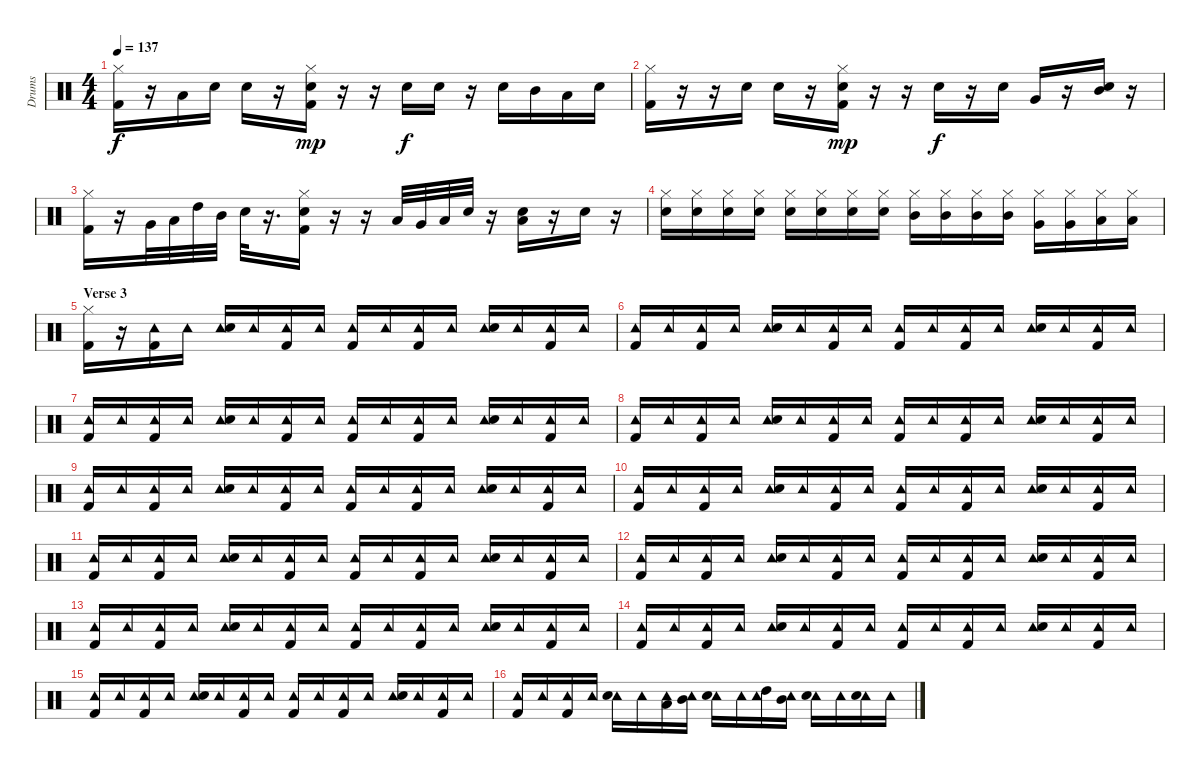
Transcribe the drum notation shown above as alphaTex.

\track ("Drums" "Drums") {instrument percussion}
\staff {score}
\articulation defaults
\ts (4 4)
\tempo 137
\clef neutral
\ks c
("Hi-Hat (closed)" "Kick (hit) 2").16{dy f} r.16 "Low Tom (hit)".16 "Electric Snare (hit)".16 "Snare (hit) 2".16 r.16 ("Hi-Hat (closed)" "Snare (hit) 2" "Kick (hit) 2").16{dy mp} r.16 r.16 "Electric Snare (hit)".16{dy f} "Snare (hit) 2".16 r.16 "Electric Snare (hit)".16 "Mid Tom (hit)".16 "Low Tom (hit)".16 "Snare (hit) 2".16 |
("Hi-Hat (closed)" "Kick (hit) 2").16 r.16 r.16 "Electric Snare (hit)".16 "Snare (hit) 2".16 r.16 ("Hi-Hat (closed)" "Snare (hit) 2" "Kick (hit) 2").16{dy mp} r.16 r.16 "Snare (hit) 2".16{dy f} r.16 "Electric Snare (hit)".16 "Very Low Tom (hit)".16 r.16 ("Mid Tom (hit)" "Electric Snare (hit)").16 r.16 |
("Hi-Hat (closed)" "Kick (hit) 2").16 r.16 "Very Low Tom (hit)".32 "Low Tom (hit)".32 "High Tom (hit)".32 "Mid Tom (hit)".32 "Electric Snare (hit)".32 r.16{d} ("Hi-Hat (closed)" "Snare (hit) 2" "Kick (hit) 2").16 r.16 r.16 "Low Floor Tom (hit)".32 "Very Low Tom (hit)".32 "Low Tom (hit)".32 "Electric Snare (hit)".32 r.16 ("Snare (hit) 2" "Low Tom (hit)").16 r.16 "Electric Snare (hit)".16 r.16 |
("Hi-Hat (closed)" "Electric Snare (hit)").16 ("Hi-Hat (closed)" "Electric Snare (hit)").16 ("Hi-Hat (closed)" "Electric Snare (hit)").16 ("Hi-Hat (closed)" "Electric Snare (hit)").16 ("Hi-Hat (closed)" "Electric Snare (hit)").16 ("Hi-Hat (closed)" "Electric Snare (hit)").16 ("Hi-Hat (closed)" "Electric Snare (hit)").16 ("Hi-Hat (closed)" "Electric Snare (hit)").16 ("Hi-Hat (closed)" "Mid Tom (hit)").16 ("Hi-Hat (closed)" "Mid Tom (hit)").16 ("Hi-Hat (closed)" "Mid Tom (hit)").16 ("Hi-Hat (closed)" "Mid Tom (hit)").16 ("Hi-Hat (closed)" "Very Low Tom (hit)").16 ("Hi-Hat (closed)" "Very Low Tom (hit)").16 ("Hi-Hat (closed)" "Low Floor Tom (hit)").16 ("Hi-Hat (closed)" "Low Floor Tom (hit)").16 |
\section ("" "Verse 3")
("Hi-Hat (closed)" "Kick (hit) 2").16 r.16 ("Tambourine (hit)" "Kick (hit) 2").16 "Tambourine (hit)".16 ("Tambourine (hit)" "Electric Snare (hit)").16 "Tambourine (hit)".16 ("Tambourine (hit)" "Kick (hit) 2").16 "Tambourine (hit)".16 ("Tambourine (hit)" "Kick (hit) 2").16 "Tambourine (hit)".16 ("Tambourine (hit)" "Kick (hit) 2").16 "Tambourine (hit)".16 ("Tambourine (hit)" "Electric Snare (hit)").16 "Tambourine (hit)".16 ("Tambourine (hit)" "Kick (hit) 2").16 "Tambourine (hit)".16 |
("Tambourine (hit)" "Kick (hit) 2").16 "Tambourine (hit)".16 ("Tambourine (hit)" "Kick (hit) 2").16 "Tambourine (hit)".16 ("Tambourine (hit)" "Electric Snare (hit)").16 "Tambourine (hit)".16 ("Tambourine (hit)" "Kick (hit) 2").16 "Tambourine (hit)".16 ("Tambourine (hit)" "Kick (hit) 2").16 "Tambourine (hit)".16 ("Tambourine (hit)" "Kick (hit) 2").16 "Tambourine (hit)".16 ("Tambourine (hit)" "Electric Snare (hit)").16 "Tambourine (hit)".16 ("Tambourine (hit)" "Kick (hit) 2").16 "Tambourine (hit)".16 |
("Tambourine (hit)" "Kick (hit) 2").16 "Tambourine (hit)".16 ("Tambourine (hit)" "Kick (hit) 2").16 "Tambourine (hit)".16 ("Tambourine (hit)" "Electric Snare (hit)").16 "Tambourine (hit)".16 ("Tambourine (hit)" "Kick (hit) 2").16 "Tambourine (hit)".16 ("Tambourine (hit)" "Kick (hit) 2").16 "Tambourine (hit)".16 ("Tambourine (hit)" "Kick (hit) 2").16 "Tambourine (hit)".16 ("Tambourine (hit)" "Electric Snare (hit)").16 "Tambourine (hit)".16 ("Tambourine (hit)" "Kick (hit) 2").16 "Tambourine (hit)".16 |
("Tambourine (hit)" "Kick (hit) 2").16 "Tambourine (hit)".16 ("Tambourine (hit)" "Kick (hit) 2").16 "Tambourine (hit)".16 ("Tambourine (hit)" "Electric Snare (hit)").16 "Tambourine (hit)".16 ("Tambourine (hit)" "Kick (hit) 2").16 "Tambourine (hit)".16 ("Tambourine (hit)" "Kick (hit) 2").16 "Tambourine (hit)".16 ("Tambourine (hit)" "Kick (hit) 2").16 "Tambourine (hit)".16 ("Tambourine (hit)" "Electric Snare (hit)").16 "Tambourine (hit)".16 ("Tambourine (hit)" "Kick (hit) 2").16 "Tambourine (hit)".16 |
("Tambourine (hit)" "Kick (hit) 2").16 "Tambourine (hit)".16 ("Tambourine (hit)" "Kick (hit) 2").16 "Tambourine (hit)".16 ("Tambourine (hit)" "Electric Snare (hit)").16 "Tambourine (hit)".16 ("Tambourine (hit)" "Kick (hit) 2").16 "Tambourine (hit)".16 ("Tambourine (hit)" "Kick (hit) 2").16 "Tambourine (hit)".16 ("Tambourine (hit)" "Kick (hit) 2").16 "Tambourine (hit)".16 ("Tambourine (hit)" "Electric Snare (hit)").16 "Tambourine (hit)".16 ("Tambourine (hit)" "Kick (hit) 2").16 "Tambourine (hit)".16 |
("Tambourine (hit)" "Kick (hit) 2").16 "Tambourine (hit)".16 ("Tambourine (hit)" "Kick (hit) 2").16 "Tambourine (hit)".16 ("Tambourine (hit)" "Electric Snare (hit)").16 "Tambourine (hit)".16 ("Tambourine (hit)" "Kick (hit) 2").16 "Tambourine (hit)".16 ("Tambourine (hit)" "Kick (hit) 2").16 "Tambourine (hit)".16 ("Tambourine (hit)" "Kick (hit) 2").16 "Tambourine (hit)".16 ("Tambourine (hit)" "Electric Snare (hit)").16 "Tambourine (hit)".16 ("Tambourine (hit)" "Kick (hit) 2").16 "Tambourine (hit)".16 |
("Tambourine (hit)" "Kick (hit) 2").16 "Tambourine (hit)".16 ("Tambourine (hit)" "Kick (hit) 2").16 "Tambourine (hit)".16 ("Tambourine (hit)" "Electric Snare (hit)").16 "Tambourine (hit)".16 ("Tambourine (hit)" "Kick (hit) 2").16 "Tambourine (hit)".16 ("Tambourine (hit)" "Kick (hit) 2").16 "Tambourine (hit)".16 ("Tambourine (hit)" "Kick (hit) 2").16 "Tambourine (hit)".16 ("Tambourine (hit)" "Electric Snare (hit)").16 "Tambourine (hit)".16 ("Tambourine (hit)" "Kick (hit) 2").16 "Tambourine (hit)".16 |
("Tambourine (hit)" "Kick (hit) 2").16 "Tambourine (hit)".16 ("Tambourine (hit)" "Kick (hit) 2").16 "Tambourine (hit)".16 ("Tambourine (hit)" "Electric Snare (hit)").16 "Tambourine (hit)".16 ("Tambourine (hit)" "Kick (hit) 2").16 "Tambourine (hit)".16 ("Tambourine (hit)" "Kick (hit) 2").16 "Tambourine (hit)".16 ("Tambourine (hit)" "Kick (hit) 2").16 "Tambourine (hit)".16 ("Tambourine (hit)" "Electric Snare (hit)").16 "Tambourine (hit)".16 ("Tambourine (hit)" "Kick (hit) 2").16 "Tambourine (hit)".16 |
("Tambourine (hit)" "Kick (hit) 2").16 "Tambourine (hit)".16 ("Tambourine (hit)" "Kick (hit) 2").16 "Tambourine (hit)".16 ("Tambourine (hit)" "Electric Snare (hit)").16 "Tambourine (hit)".16 ("Tambourine (hit)" "Kick (hit) 2").16 "Tambourine (hit)".16 ("Tambourine (hit)" "Kick (hit) 2").16 "Tambourine (hit)".16 ("Tambourine (hit)" "Kick (hit) 2").16 "Tambourine (hit)".16 ("Tambourine (hit)" "Electric Snare (hit)").16 "Tambourine (hit)".16 ("Tambourine (hit)" "Kick (hit) 2").16 "Tambourine (hit)".16 |
("Tambourine (hit)" "Kick (hit) 2").16 "Tambourine (hit)".16 ("Tambourine (hit)" "Kick (hit) 2").16 "Tambourine (hit)".16 ("Tambourine (hit)" "Electric Snare (hit)").16 "Tambourine (hit)".16 ("Tambourine (hit)" "Kick (hit) 2").16 "Tambourine (hit)".16 ("Tambourine (hit)" "Kick (hit) 2").16 "Tambourine (hit)".16 ("Tambourine (hit)" "Kick (hit) 2").16 "Tambourine (hit)".16 ("Tambourine (hit)" "Electric Snare (hit)").16 "Tambourine (hit)".16 ("Tambourine (hit)" "Kick (hit) 2").16 "Tambourine (hit)".16 |
("Tambourine (hit)" "Kick (hit) 2").16 "Tambourine (hit)".16 ("Tambourine (hit)" "Kick (hit) 2").16 "Tambourine (hit)".16 ("Tambourine (hit)" "Electric Snare (hit)").16 "Tambourine (hit)".16 ("Tambourine (hit)" "Kick (hit) 2").16 "Tambourine (hit)".16 ("Tambourine (hit)" "Kick (hit) 2").16 "Tambourine (hit)".16 ("Tambourine (hit)" "Kick (hit) 2").16 "Tambourine (hit)".16 ("Tambourine (hit)" "Electric Snare (hit)").16 "Tambourine (hit)".16 ("Tambourine (hit)" "Kick (hit) 2").16 "Tambourine (hit)".16 |
("Tambourine (hit)" "Kick (hit) 2").16 "Tambourine (hit)".16 ("Tambourine (hit)" "Kick (hit) 2").16 "Tambourine (hit)".16 ("Tambourine (hit)" "Electric Snare (hit)").16 "Tambourine (hit)".16 ("Tambourine (hit)" "Low Tom (hit)").16 ("Tambourine (hit)" "Mid Tom (hit)").16 ("Tambourine (hit)" "Electric Snare (hit)").16 "Tambourine (hit)".16 ("Tambourine (hit)" "High Tom (hit)").16 ("Tambourine (hit)" "Mid Tom (hit)").16 ("Tambourine (hit)" "Electric Snare (hit)").16 "Tambourine (hit)".16 ("Tambourine (hit)" "Electric Snare (hit)").16 "Tambourine (hit)".16
